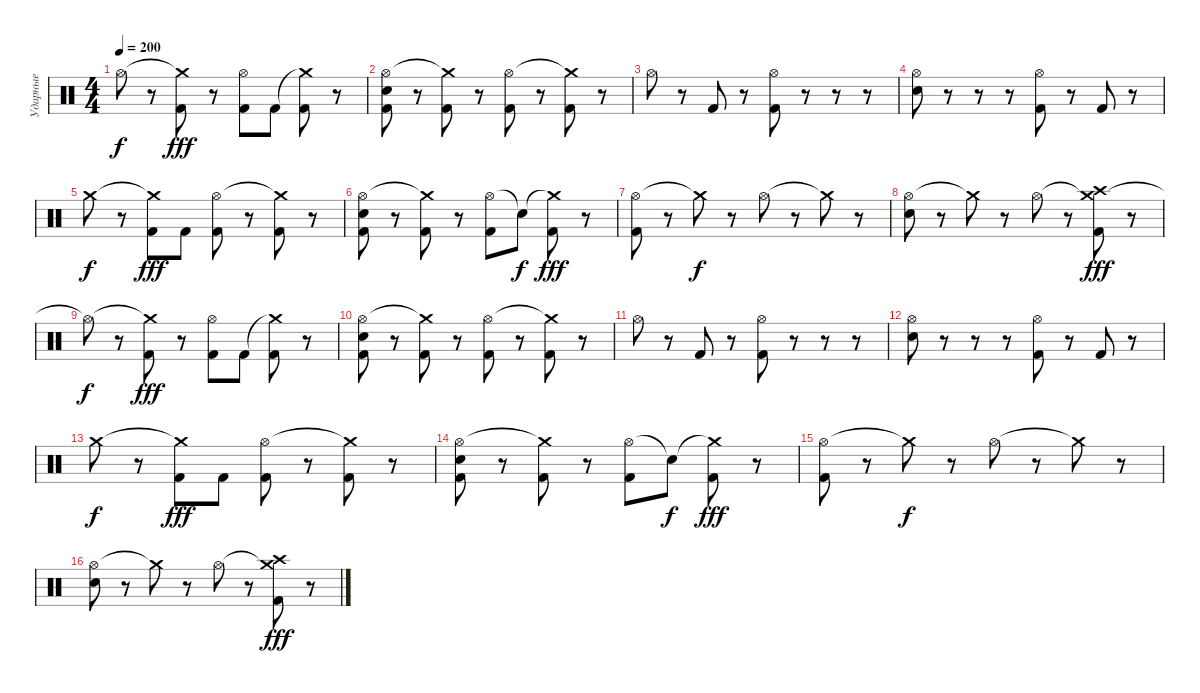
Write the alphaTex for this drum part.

\track ("Ударные" "Ударные") {instrument percussion}
\staff {score}
\articulation defaults
\ts (4 4)
\tempo 200
\clef neutral
\ks c "Hi-Hat (open)"{t}.8{dy f}
r.8 ("Crash medium (hit)"{t} "Kick (hit) 2").8{dy fff} r.8 ("Hi-Hat (open)" "Kick (hit) 2").8 "Kick (hit) 2".8 ("Crash medium (hit)"{t} "Kick (hit) 2").8 r.8 |
("Hi-Hat (open)" "Electric Snare (hit)" "Kick (hit) 2").8 r.8 ("Crash medium (hit)"{t} "Kick (hit) 2").8 r.8 ("Hi-Hat (open)" "Kick (hit) 2").8 r.8 ("Crash medium (hit)"{t} "Kick (hit) 2").8 r.8 |
"Hi-Hat (open)".8 r.8 "Kick (hit) 2".8 r.8 ("Hi-Hat (open)" "Kick (hit) 2").8 r.8 r.8 r.8 |
("Hi-Hat (open)" "Electric Snare (hit)").8 r.8 r.8 r.8 ("Hi-Hat (open)" "Kick (hit) 2").8 r.8 "Kick (hit) 2".8 r.8 |
"Crash medium (hit)".8{dy f} r.8 ("Crash medium (hit)"{t} "Kick (hit) 2").8{dy fff} "Kick (hit) 2".8 ("Hi-Hat (open)" "Kick (hit) 2").8 r.8 ("Crash medium (hit)"{t} "Kick (hit) 2").8 r.8 |
("Hi-Hat (open)" "Electric Snare (hit)" "Kick (hit) 2").8 r.8 ("Crash medium (hit)"{t} "Kick (hit) 2").8 r.8 ("Hi-Hat (open)" "Kick (hit) 2").8 "Snare (hit)"{t}.8{dy f} ("Crash medium (hit)"{t} "Kick (hit) 2").8{dy fff} r.8 |
("Hi-Hat (open)" "Kick (hit) 2").8 r.8 "Crash medium (hit)"{t}.8{dy f} r.8 "Hi-Hat (open)".8 r.8 "Crash medium (hit)"{t}.8 r.8 |
("Hi-Hat (open)" "Electric Snare (hit)").8 r.8 "Crash medium (hit)"{t}.8 r.8 "Hi-Hat (open)".8 r.8 ("Crash medium (hit)"{t} "Crash high (hit)" "Kick (hit) 2").8{dy fff} r.8 |
"Hi-Hat (open)"{t}.8{dy f} r.8 ("Crash medium (hit)"{t} "Kick (hit) 2").8{dy fff} r.8 ("Hi-Hat (open)" "Kick (hit) 2").8 "Kick (hit) 2".8 ("Crash medium (hit)"{t} "Kick (hit) 2").8 r.8 |
("Hi-Hat (open)" "Electric Snare (hit)" "Kick (hit) 2").8 r.8 ("Crash medium (hit)"{t} "Kick (hit) 2").8 r.8 ("Hi-Hat (open)" "Kick (hit) 2").8 r.8 ("Crash medium (hit)"{t} "Kick (hit) 2").8 r.8 |
"Hi-Hat (open)".8 r.8 "Kick (hit) 2".8 r.8 ("Hi-Hat (open)" "Kick (hit) 2").8 r.8 r.8 r.8 |
("Hi-Hat (open)" "Electric Snare (hit)").8 r.8 r.8 r.8 ("Hi-Hat (open)" "Kick (hit) 2").8 r.8 "Kick (hit) 2".8 r.8 |
"Crash medium (hit)".8{dy f} r.8 ("Crash medium (hit)"{t} "Kick (hit) 2").8{dy fff} "Kick (hit) 2".8 ("Hi-Hat (open)" "Kick (hit) 2").8 r.8 ("Crash medium (hit)"{t} "Kick (hit) 2").8 r.8 |
("Hi-Hat (open)" "Electric Snare (hit)" "Kick (hit) 2").8 r.8 ("Crash medium (hit)"{t} "Kick (hit) 2").8 r.8 ("Hi-Hat (open)" "Kick (hit) 2").8 "Snare (hit)"{t}.8{dy f} ("Crash medium (hit)"{t} "Kick (hit) 2").8{dy fff} r.8 |
("Hi-Hat (open)" "Kick (hit) 2").8 r.8 "Crash medium (hit)"{t}.8{dy f} r.8 "Hi-Hat (open)".8 r.8 "Crash medium (hit)"{t}.8 r.8 |
("Hi-Hat (open)" "Electric Snare (hit)").8 r.8 "Crash medium (hit)"{t}.8 r.8 "Hi-Hat (open)".8 r.8 ("Crash medium (hit)"{t} "Crash high (hit)" "Kick (hit) 2").8{dy fff} r.8
